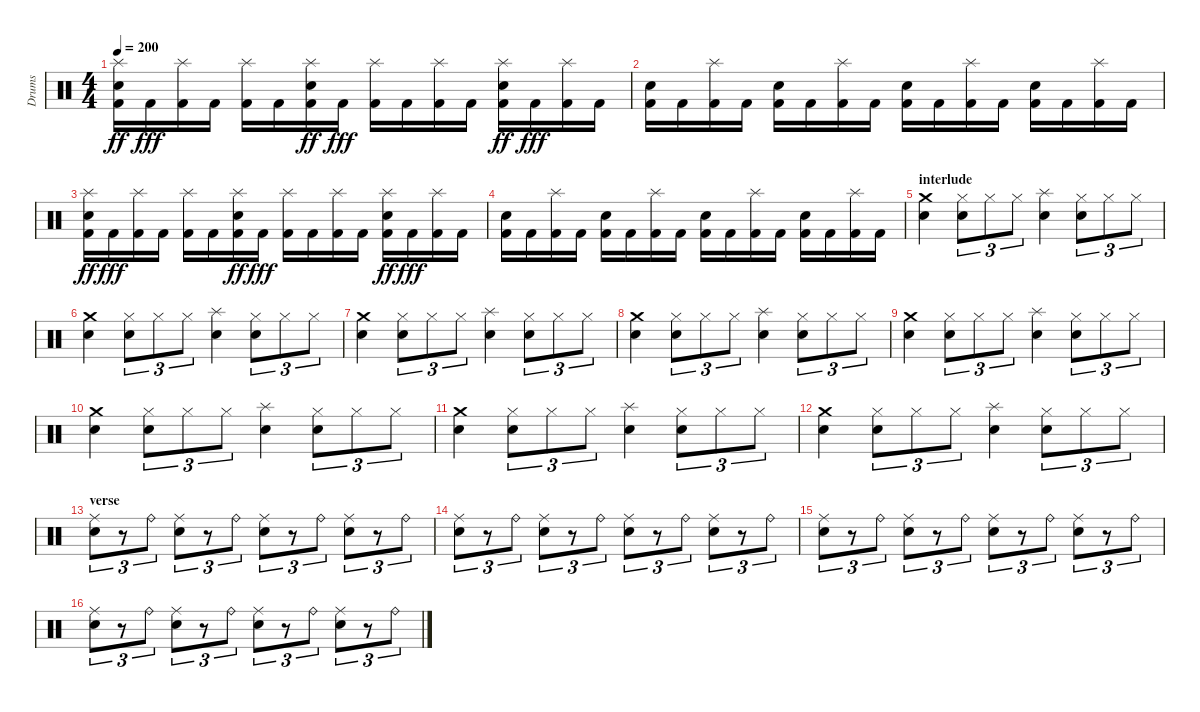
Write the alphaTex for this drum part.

\track ("Drums" "Drums") {instrument percussion}
\staff {score}
\articulation defaults
\ts (4 4)
\tempo 200
\clef neutral
\ks c
("Kick (hit) 2" "Electric Snare (hit)" "Splash (hit)").16{dy ff} "Kick (hit) 2".16{dy fff} ("Splash (hit)" "Kick (hit) 2").16 "Kick (hit) 2".16 ("Splash (hit)" "Kick (hit) 2").16 "Kick (hit) 2".16 ("Kick (hit) 2" "Electric Snare (hit)" "Splash (hit)").16{dy ff} "Kick (hit) 2".16{dy fff} ("Splash (hit)" "Kick (hit) 2").16 "Kick (hit) 2".16 ("Splash (hit)" "Kick (hit) 2").16 "Kick (hit) 2".16 ("Kick (hit) 2" "Electric Snare (hit)" "Splash (hit)").16{dy ff} "Kick (hit) 2".16{dy fff} ("Splash (hit)" "Kick (hit) 2").16 "Kick (hit) 2".16 |
("Electric Snare (hit)" "Kick (hit) 2").16 "Kick (hit) 2".16 ("Splash (hit)" "Kick (hit) 2").16 "Kick (hit) 2".16 ("Electric Snare (hit)" "Kick (hit) 2").16 "Kick (hit) 2".16 ("Splash (hit)" "Kick (hit) 2").16 "Kick (hit) 2".16 ("Electric Snare (hit)" "Kick (hit) 2").16 "Kick (hit) 2".16 ("Splash (hit)" "Kick (hit) 2").16 "Kick (hit) 2".16 ("Electric Snare (hit)" "Kick (hit) 2").16 "Kick (hit) 2".16 ("Splash (hit)" "Kick (hit) 2").16 "Kick (hit) 2".16 |
("Kick (hit) 2" "Electric Snare (hit)" "Splash (hit)").16{dy ff} "Kick (hit) 2".16{dy fff} ("Splash (hit)" "Kick (hit) 2").16 "Kick (hit) 2".16 ("Splash (hit)" "Kick (hit) 2").16 "Kick (hit) 2".16 ("Kick (hit) 2" "Electric Snare (hit)" "Splash (hit)").16{dy ff} "Kick (hit) 2".16{dy fff} ("Splash (hit)" "Kick (hit) 2").16 "Kick (hit) 2".16 ("Splash (hit)" "Kick (hit) 2").16 "Kick (hit) 2".16 ("Kick (hit) 2" "Electric Snare (hit)" "Splash (hit)").16{dy ff} "Kick (hit) 2".16{dy fff} ("Splash (hit)" "Kick (hit) 2").16 "Kick (hit) 2".16 |
("Electric Snare (hit)" "Kick (hit) 2").16 "Kick (hit) 2".16 ("Splash (hit)" "Kick (hit) 2").16 "Kick (hit) 2".16 ("Electric Snare (hit)" "Kick (hit) 2").16 "Kick (hit) 2".16 ("Splash (hit)" "Kick (hit) 2").16 "Kick (hit) 2".16 ("Electric Snare (hit)" "Kick (hit) 2").16 "Kick (hit) 2".16 ("Splash (hit)" "Kick (hit) 2").16 "Kick (hit) 2".16 ("Electric Snare (hit)" "Kick (hit) 2").16 "Kick (hit) 2".16 ("Splash (hit)" "Kick (hit) 2").16 "Kick (hit) 2".16 |
\section ("" "interlude")
("Electric Snare (hit)" "Crash medium (hit)").4 ("Hi-Hat (closed)" "Electric Snare (hit)").8{tu (3 2)} "Hi-Hat (closed)".8{tu (3 2)} "Hi-Hat (closed)".8{tu (3 2)} ("Electric Snare (hit)" "Splash (hit)").4 ("Hi-Hat (closed)" "Electric Snare (hit)").8{tu (3 2)} "Hi-Hat (closed)".8{tu (3 2)} "Hi-Hat (closed)".8{tu (3 2)} |
("Electric Snare (hit)" "Crash medium (hit)").4 ("Hi-Hat (closed)" "Electric Snare (hit)").8{tu (3 2)} "Hi-Hat (closed)".8{tu (3 2)} "Hi-Hat (closed)".8{tu (3 2)} ("Electric Snare (hit)" "Splash (hit)").4 ("Hi-Hat (closed)" "Electric Snare (hit)").8{tu (3 2)} "Hi-Hat (closed)".8{tu (3 2)} "Hi-Hat (closed)".8{tu (3 2)} |
("Electric Snare (hit)" "Crash medium (hit)").4 ("Hi-Hat (closed)" "Electric Snare (hit)").8{tu (3 2)} "Hi-Hat (closed)".8{tu (3 2)} "Hi-Hat (closed)".8{tu (3 2)} ("Electric Snare (hit)" "Splash (hit)").4 ("Hi-Hat (closed)" "Electric Snare (hit)").8{tu (3 2)} "Hi-Hat (closed)".8{tu (3 2)} "Hi-Hat (closed)".8{tu (3 2)} |
("Electric Snare (hit)" "Crash medium (hit)").4 ("Hi-Hat (closed)" "Electric Snare (hit)").8{tu (3 2)} "Hi-Hat (closed)".8{tu (3 2)} "Hi-Hat (closed)".8{tu (3 2)} ("Electric Snare (hit)" "Splash (hit)").4 ("Hi-Hat (closed)" "Electric Snare (hit)").8{tu (3 2)} "Hi-Hat (closed)".8{tu (3 2)} "Hi-Hat (closed)".8{tu (3 2)} |
("Electric Snare (hit)" "Crash medium (hit)").4 ("Hi-Hat (closed)" "Electric Snare (hit)").8{tu (3 2)} "Hi-Hat (closed)".8{tu (3 2)} "Hi-Hat (closed)".8{tu (3 2)} ("Electric Snare (hit)" "Splash (hit)").4 ("Hi-Hat (closed)" "Electric Snare (hit)").8{tu (3 2)} "Hi-Hat (closed)".8{tu (3 2)} "Hi-Hat (closed)".8{tu (3 2)} |
("Electric Snare (hit)" "Crash medium (hit)").4 ("Hi-Hat (closed)" "Electric Snare (hit)").8{tu (3 2)} "Hi-Hat (closed)".8{tu (3 2)} "Hi-Hat (closed)".8{tu (3 2)} ("Electric Snare (hit)" "Splash (hit)").4 ("Hi-Hat (closed)" "Electric Snare (hit)").8{tu (3 2)} "Hi-Hat (closed)".8{tu (3 2)} "Hi-Hat (closed)".8{tu (3 2)} |
("Electric Snare (hit)" "Crash medium (hit)").4 ("Hi-Hat (closed)" "Electric Snare (hit)").8{tu (3 2)} "Hi-Hat (closed)".8{tu (3 2)} "Hi-Hat (closed)".8{tu (3 2)} ("Electric Snare (hit)" "Splash (hit)").4 ("Hi-Hat (closed)" "Electric Snare (hit)").8{tu (3 2)} "Hi-Hat (closed)".8{tu (3 2)} "Hi-Hat (closed)".8{tu (3 2)} |
("Electric Snare (hit)" "Crash medium (hit)").4 ("Hi-Hat (closed)" "Electric Snare (hit)").8{tu (3 2)} "Hi-Hat (closed)".8{tu (3 2)} "Hi-Hat (closed)".8{tu (3 2)} ("Electric Snare (hit)" "Splash (hit)").4 ("Hi-Hat (closed)" "Electric Snare (hit)").8{tu (3 2)} "Hi-Hat (closed)".8{tu (3 2)} "Hi-Hat (closed)".8{tu (3 2)} |
\section ("" "verse")
("Electric Snare (hit)" "Ride (middle)").8{tu (3 2)} r.8{tu (3 2)} "Ride (bell)".8{tu (3 2)} ("Electric Snare (hit)" "Ride (middle)").8{tu (3 2)} r.8{tu (3 2)} "Ride (bell)".8{tu (3 2)} ("Electric Snare (hit)" "Ride (middle)").8{tu (3 2)} r.8{tu (3 2)} "Ride (bell)".8{tu (3 2)} ("Electric Snare (hit)" "Ride (middle)").8{tu (3 2)} r.8{tu (3 2)} "Ride (bell)".8{tu (3 2)} |
("Electric Snare (hit)" "Ride (middle)").8{tu (3 2)} r.8{tu (3 2)} "Ride (bell)".8{tu (3 2)} ("Electric Snare (hit)" "Ride (middle)").8{tu (3 2)} r.8{tu (3 2)} "Ride (bell)".8{tu (3 2)} ("Electric Snare (hit)" "Ride (middle)").8{tu (3 2)} r.8{tu (3 2)} "Ride (bell)".8{tu (3 2)} ("Electric Snare (hit)" "Ride (middle)").8{tu (3 2)} r.8{tu (3 2)} "Ride (bell)".8{tu (3 2)} |
("Electric Snare (hit)" "Ride (middle)").8{tu (3 2)} r.8{tu (3 2)} "Ride (bell)".8{tu (3 2)} ("Electric Snare (hit)" "Ride (middle)").8{tu (3 2)} r.8{tu (3 2)} "Ride (bell)".8{tu (3 2)} ("Electric Snare (hit)" "Ride (middle)").8{tu (3 2)} r.8{tu (3 2)} "Ride (bell)".8{tu (3 2)} ("Electric Snare (hit)" "Ride (middle)").8{tu (3 2)} r.8{tu (3 2)} "Ride (bell)".8{tu (3 2)} |
("Electric Snare (hit)" "Ride (middle)").8{tu (3 2)} r.8{tu (3 2)} "Ride (bell)".8{tu (3 2)} ("Electric Snare (hit)" "Ride (middle)").8{tu (3 2)} r.8{tu (3 2)} "Ride (bell)".8{tu (3 2)} ("Electric Snare (hit)" "Ride (middle)").8{tu (3 2)} r.8{tu (3 2)} "Ride (bell)".8{tu (3 2)} ("Electric Snare (hit)" "Ride (middle)").8{tu (3 2)} r.8{tu (3 2)} "Ride (bell)".8{tu (3 2)}
